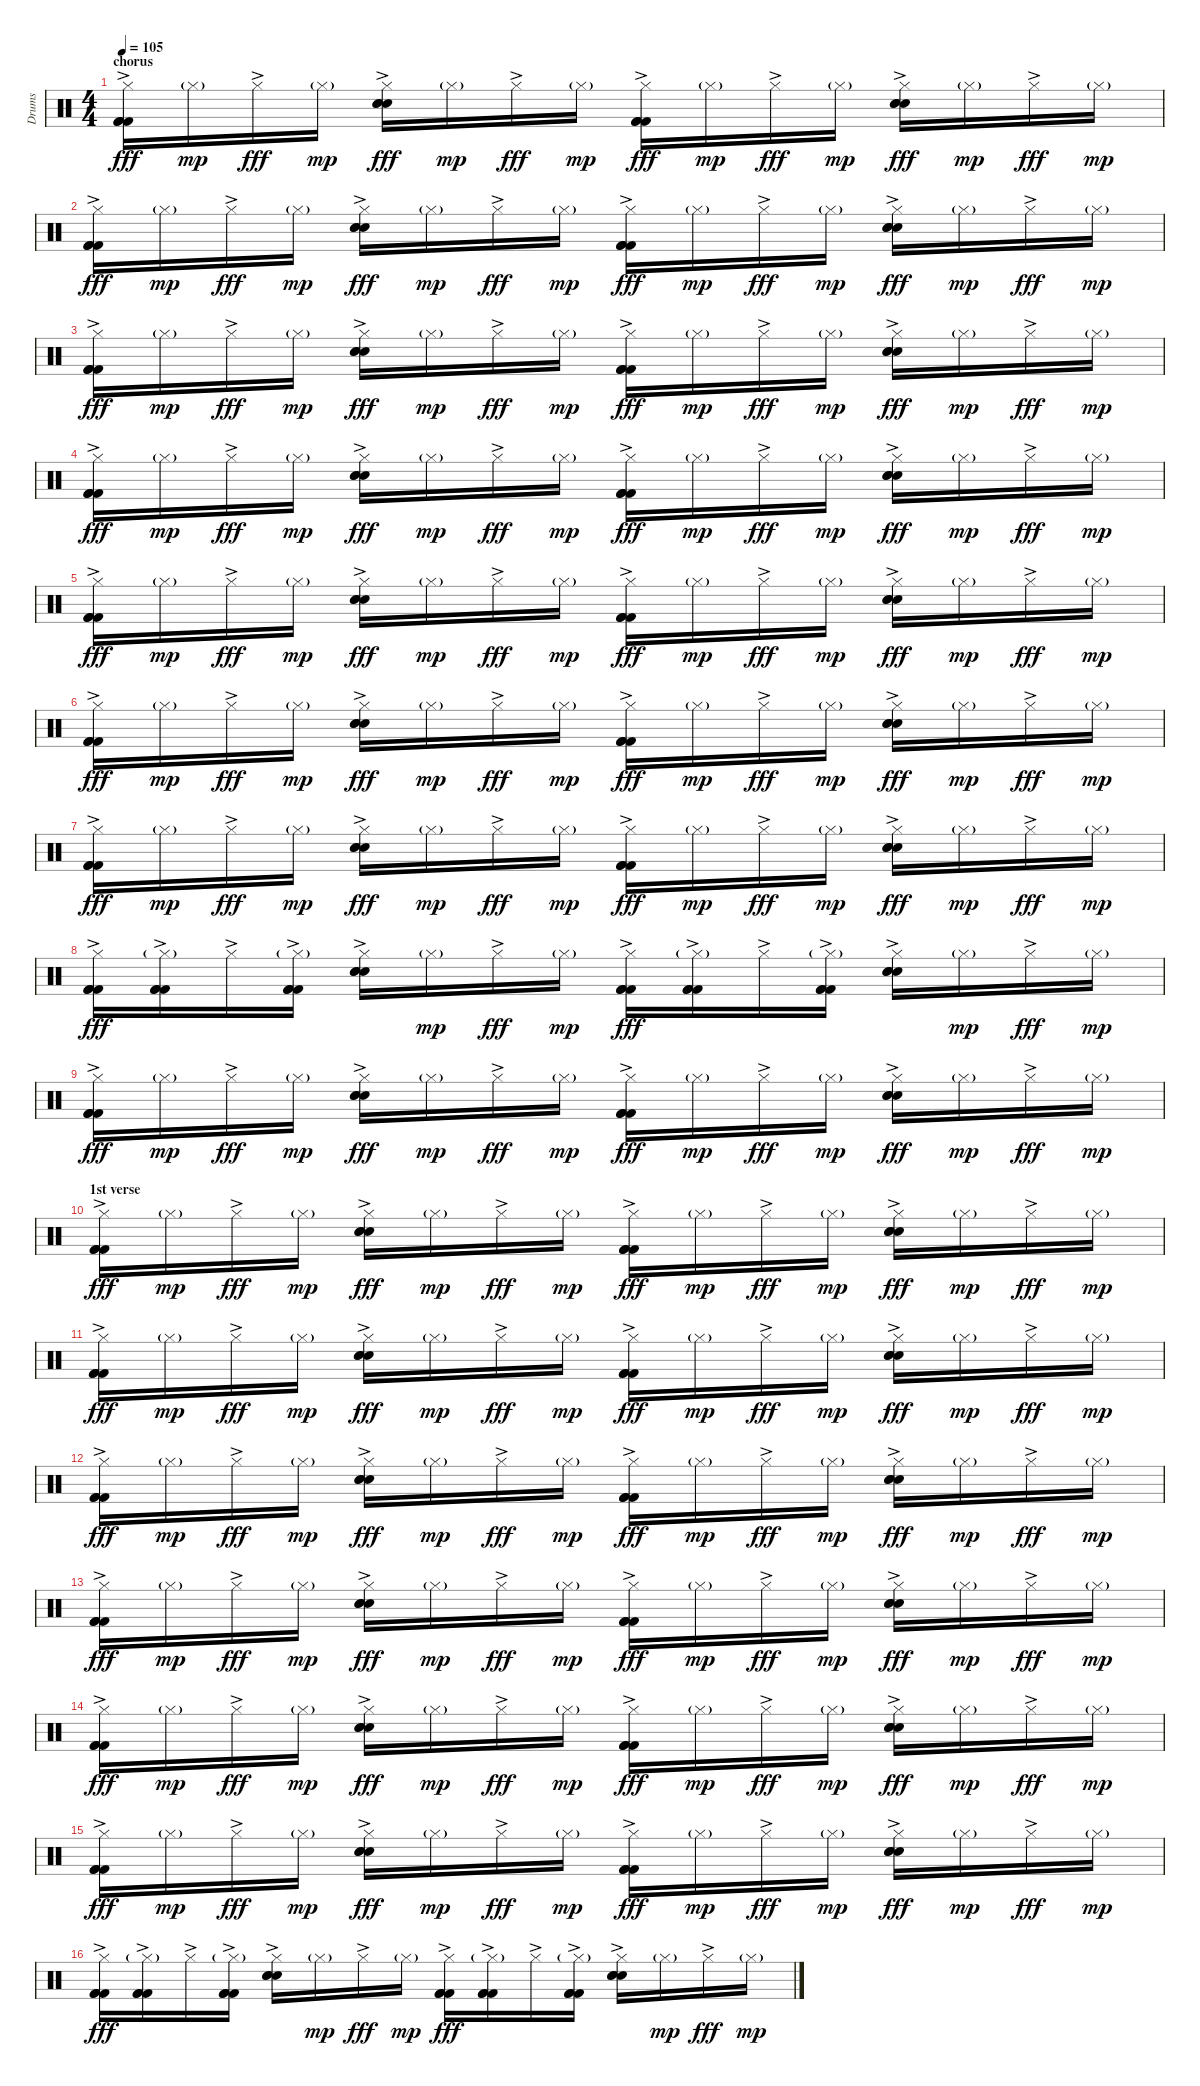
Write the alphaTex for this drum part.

\track ("Drums" "Drums") {instrument percussion}
\staff {score}
\articulation defaults
\ts (4 4)
\section ("" "chorus")
\tempo 105
\clef neutral
\ks c
("Hi-Hat (closed)"{ac} "Kick (hit) 2"{ac} "Kick (hit) 2"{ac} "Kick (hit) 2"{ac}).16{dy fff} "Hi-Hat (closed)"{g}.16{dy mp} "Hi-Hat (closed)"{ac}.16{dy fff} "Hi-Hat (closed)"{g}.16{dy mp} ("Hi-Hat (closed)"{ac} "Snare (hit) 2"{ac} "Snare (hit) 2"{ac} "Snare (hit) 2"{ac}).16{dy fff} "Hi-Hat (closed)"{g}.16{dy mp} "Hi-Hat (closed)"{ac}.16{dy fff} "Hi-Hat (closed)"{g}.16{dy mp} ("Hi-Hat (closed)"{ac} "Kick (hit) 2"{ac} "Kick (hit) 2"{ac} "Kick (hit) 2"{ac}).16{dy fff} "Hi-Hat (closed)"{g}.16{dy mp} "Hi-Hat (closed)"{ac}.16{dy fff} "Hi-Hat (closed)"{g}.16{dy mp} ("Hi-Hat (closed)"{ac} "Snare (hit) 2"{ac} "Snare (hit) 2"{ac} "Snare (hit) 2"{ac}).16{dy fff} "Hi-Hat (closed)"{g}.16{dy mp} "Hi-Hat (closed)"{ac}.16{dy fff} "Hi-Hat (closed)"{g}.16{dy mp} |
("Hi-Hat (closed)"{ac} "Kick (hit) 2"{ac} "Kick (hit) 2"{ac} "Kick (hit) 2"{ac}).16{dy fff} "Hi-Hat (closed)"{g}.16{dy mp} "Hi-Hat (closed)"{ac}.16{dy fff} "Hi-Hat (closed)"{g}.16{dy mp} ("Hi-Hat (closed)"{ac} "Snare (hit) 2"{ac} "Snare (hit) 2"{ac} "Snare (hit) 2"{ac}).16{dy fff} "Hi-Hat (closed)"{g}.16{dy mp} "Hi-Hat (closed)"{ac}.16{dy fff} "Hi-Hat (closed)"{g}.16{dy mp} ("Hi-Hat (closed)"{ac} "Kick (hit) 2"{ac} "Kick (hit) 2"{ac} "Kick (hit) 2"{ac}).16{dy fff} "Hi-Hat (closed)"{g}.16{dy mp} "Hi-Hat (closed)"{ac}.16{dy fff} "Hi-Hat (closed)"{g}.16{dy mp} ("Hi-Hat (closed)"{ac} "Snare (hit) 2"{ac} "Snare (hit) 2"{ac} "Snare (hit) 2"{ac}).16{dy fff} "Hi-Hat (closed)"{g}.16{dy mp} "Hi-Hat (closed)"{ac}.16{dy fff} "Hi-Hat (closed)"{g}.16{dy mp} |
("Hi-Hat (closed)"{ac} "Kick (hit) 2"{ac} "Kick (hit) 2"{ac} "Kick (hit) 2"{ac}).16{dy fff} "Hi-Hat (closed)"{g}.16{dy mp} "Hi-Hat (closed)"{ac}.16{dy fff} "Hi-Hat (closed)"{g}.16{dy mp} ("Hi-Hat (closed)"{ac} "Snare (hit) 2"{ac} "Snare (hit) 2"{ac} "Snare (hit) 2"{ac}).16{dy fff} "Hi-Hat (closed)"{g}.16{dy mp} "Hi-Hat (closed)"{ac}.16{dy fff} "Hi-Hat (closed)"{g}.16{dy mp} ("Hi-Hat (closed)"{ac} "Kick (hit) 2"{ac} "Kick (hit) 2"{ac} "Kick (hit) 2"{ac}).16{dy fff} "Hi-Hat (closed)"{g}.16{dy mp} "Hi-Hat (closed)"{ac}.16{dy fff} "Hi-Hat (closed)"{g}.16{dy mp} ("Hi-Hat (closed)"{ac} "Snare (hit) 2"{ac} "Snare (hit) 2"{ac} "Snare (hit) 2"{ac}).16{dy fff} "Hi-Hat (closed)"{g}.16{dy mp} "Hi-Hat (closed)"{ac}.16{dy fff} "Hi-Hat (closed)"{g}.16{dy mp} |
("Hi-Hat (closed)"{ac} "Kick (hit) 2"{ac} "Kick (hit) 2"{ac} "Kick (hit) 2"{ac}).16{dy fff} "Hi-Hat (closed)"{g}.16{dy mp} "Hi-Hat (closed)"{ac}.16{dy fff} "Hi-Hat (closed)"{g}.16{dy mp} ("Hi-Hat (closed)"{ac} "Snare (hit) 2"{ac} "Snare (hit) 2"{ac} "Snare (hit) 2"{ac}).16{dy fff} "Hi-Hat (closed)"{g}.16{dy mp} "Hi-Hat (closed)"{ac}.16{dy fff} "Hi-Hat (closed)"{g}.16{dy mp} ("Hi-Hat (closed)"{ac} "Kick (hit) 2"{ac} "Kick (hit) 2"{ac} "Kick (hit) 2"{ac}).16{dy fff} "Hi-Hat (closed)"{g}.16{dy mp} "Hi-Hat (closed)"{ac}.16{dy fff} "Hi-Hat (closed)"{g}.16{dy mp} ("Hi-Hat (closed)"{ac} "Snare (hit) 2"{ac} "Snare (hit) 2"{ac} "Snare (hit) 2"{ac}).16{dy fff} "Hi-Hat (closed)"{g}.16{dy mp} "Hi-Hat (closed)"{ac}.16{dy fff} "Hi-Hat (closed)"{g}.16{dy mp} |
("Hi-Hat (closed)"{ac} "Kick (hit) 2"{ac} "Kick (hit) 2"{ac} "Kick (hit) 2"{ac}).16{dy fff} "Hi-Hat (closed)"{g}.16{dy mp} "Hi-Hat (closed)"{ac}.16{dy fff} "Hi-Hat (closed)"{g}.16{dy mp} ("Hi-Hat (closed)"{ac} "Snare (hit) 2"{ac} "Snare (hit) 2"{ac} "Snare (hit) 2"{ac}).16{dy fff} "Hi-Hat (closed)"{g}.16{dy mp} "Hi-Hat (closed)"{ac}.16{dy fff} "Hi-Hat (closed)"{g}.16{dy mp} ("Hi-Hat (closed)"{ac} "Kick (hit) 2"{ac} "Kick (hit) 2"{ac} "Kick (hit) 2"{ac}).16{dy fff} "Hi-Hat (closed)"{g}.16{dy mp} "Hi-Hat (closed)"{ac}.16{dy fff} "Hi-Hat (closed)"{g}.16{dy mp} ("Hi-Hat (closed)"{ac} "Snare (hit) 2"{ac} "Snare (hit) 2"{ac} "Snare (hit) 2"{ac}).16{dy fff} "Hi-Hat (closed)"{g}.16{dy mp} "Hi-Hat (closed)"{ac}.16{dy fff} "Hi-Hat (closed)"{g}.16{dy mp} |
("Hi-Hat (closed)"{ac} "Kick (hit) 2"{ac} "Kick (hit) 2"{ac} "Kick (hit) 2"{ac}).16{dy fff} "Hi-Hat (closed)"{g}.16{dy mp} "Hi-Hat (closed)"{ac}.16{dy fff} "Hi-Hat (closed)"{g}.16{dy mp} ("Hi-Hat (closed)"{ac} "Snare (hit) 2"{ac} "Snare (hit) 2"{ac} "Snare (hit) 2"{ac}).16{dy fff} "Hi-Hat (closed)"{g}.16{dy mp} "Hi-Hat (closed)"{ac}.16{dy fff} "Hi-Hat (closed)"{g}.16{dy mp} ("Hi-Hat (closed)"{ac} "Kick (hit) 2"{ac} "Kick (hit) 2"{ac} "Kick (hit) 2"{ac}).16{dy fff} "Hi-Hat (closed)"{g}.16{dy mp} "Hi-Hat (closed)"{ac}.16{dy fff} "Hi-Hat (closed)"{g}.16{dy mp} ("Hi-Hat (closed)"{ac} "Snare (hit) 2"{ac} "Snare (hit) 2"{ac} "Snare (hit) 2"{ac}).16{dy fff} "Hi-Hat (closed)"{g}.16{dy mp} "Hi-Hat (closed)"{ac}.16{dy fff} "Hi-Hat (closed)"{g}.16{dy mp} |
("Hi-Hat (closed)"{ac} "Kick (hit) 2"{ac} "Kick (hit) 2"{ac} "Kick (hit) 2"{ac}).16{dy fff} "Hi-Hat (closed)"{g}.16{dy mp} "Hi-Hat (closed)"{ac}.16{dy fff} "Hi-Hat (closed)"{g}.16{dy mp} ("Hi-Hat (closed)"{ac} "Snare (hit) 2"{ac} "Snare (hit) 2"{ac} "Snare (hit) 2"{ac}).16{dy fff} "Hi-Hat (closed)"{g}.16{dy mp} "Hi-Hat (closed)"{ac}.16{dy fff} "Hi-Hat (closed)"{g}.16{dy mp} ("Hi-Hat (closed)"{ac} "Kick (hit) 2"{ac} "Kick (hit) 2"{ac} "Kick (hit) 2"{ac}).16{dy fff} "Hi-Hat (closed)"{g}.16{dy mp} "Hi-Hat (closed)"{ac}.16{dy fff} "Hi-Hat (closed)"{g}.16{dy mp} ("Hi-Hat (closed)"{ac} "Snare (hit) 2"{ac} "Snare (hit) 2"{ac} "Snare (hit) 2"{ac}).16{dy fff} "Hi-Hat (closed)"{g}.16{dy mp} "Hi-Hat (closed)"{ac}.16{dy fff} "Hi-Hat (closed)"{g}.16{dy mp} |
("Hi-Hat (closed)"{ac} "Kick (hit) 2"{ac} "Kick (hit) 2"{ac} "Kick (hit) 2"{ac}).16{dy fff} ("Hi-Hat (closed)"{g} "Kick (hit) 2"{ac} "Kick (hit) 2"{ac} "Kick (hit) 2"{ac}).16 "Hi-Hat (closed)"{ac}.16 ("Hi-Hat (closed)"{g} "Kick (hit) 2"{ac} "Kick (hit) 2"{ac} "Kick (hit) 2"{ac}).16 ("Hi-Hat (closed)"{ac} "Snare (hit) 2"{ac} "Snare (hit) 2"{ac} "Snare (hit) 2"{ac}).16 "Hi-Hat (closed)"{g}.16{dy mp} "Hi-Hat (closed)"{ac}.16{dy fff} "Hi-Hat (closed)"{g}.16{dy mp} ("Hi-Hat (closed)"{ac} "Kick (hit) 2"{ac} "Kick (hit) 2"{ac} "Kick (hit) 2"{ac}).16{dy fff} ("Hi-Hat (closed)"{g} "Kick (hit) 2"{ac} "Kick (hit) 2"{ac} "Kick (hit) 2"{ac}).16 "Hi-Hat (closed)"{ac}.16 ("Hi-Hat (closed)"{g} "Kick (hit) 2"{ac} "Kick (hit) 2"{ac} "Kick (hit) 2"{ac}).16 ("Hi-Hat (closed)"{ac} "Snare (hit) 2"{ac} "Snare (hit) 2"{ac} "Snare (hit) 2"{ac}).16 "Hi-Hat (closed)"{g}.16{dy mp} "Hi-Hat (closed)"{ac}.16{dy fff} "Hi-Hat (closed)"{g}.16{dy mp} |
("Hi-Hat (closed)"{ac} "Kick (hit) 2"{ac} "Kick (hit) 2"{ac} "Kick (hit) 2"{ac}).16{dy fff} "Hi-Hat (closed)"{g}.16{dy mp} "Hi-Hat (closed)"{ac}.16{dy fff} "Hi-Hat (closed)"{g}.16{dy mp} ("Hi-Hat (closed)"{ac} "Snare (hit) 2"{ac} "Snare (hit) 2"{ac} "Snare (hit) 2"{ac}).16{dy fff} "Hi-Hat (closed)"{g}.16{dy mp} "Hi-Hat (closed)"{ac}.16{dy fff} "Hi-Hat (closed)"{g}.16{dy mp} ("Hi-Hat (closed)"{ac} "Kick (hit) 2"{ac} "Kick (hit) 2"{ac} "Kick (hit) 2"{ac}).16{dy fff} "Hi-Hat (closed)"{g}.16{dy mp} "Hi-Hat (closed)"{ac}.16{dy fff} "Hi-Hat (closed)"{g}.16{dy mp} ("Hi-Hat (closed)"{ac} "Snare (hit) 2"{ac} "Snare (hit) 2"{ac} "Snare (hit) 2"{ac}).16{dy fff} "Hi-Hat (closed)"{g}.16{dy mp} "Hi-Hat (closed)"{ac}.16{dy fff} "Hi-Hat (closed)"{g}.16{dy mp} |
\section ("" "1st verse")
("Hi-Hat (closed)"{ac} "Kick (hit) 2"{ac} "Kick (hit) 2"{ac} "Kick (hit) 2"{ac}).16{dy fff} "Hi-Hat (closed)"{g}.16{dy mp} "Hi-Hat (closed)"{ac}.16{dy fff} "Hi-Hat (closed)"{g}.16{dy mp} ("Hi-Hat (closed)"{ac} "Snare (hit) 2"{ac} "Snare (hit) 2"{ac} "Snare (hit) 2"{ac}).16{dy fff} "Hi-Hat (closed)"{g}.16{dy mp} "Hi-Hat (closed)"{ac}.16{dy fff} "Hi-Hat (closed)"{g}.16{dy mp} ("Hi-Hat (closed)"{ac} "Kick (hit) 2"{ac} "Kick (hit) 2"{ac} "Kick (hit) 2"{ac}).16{dy fff} "Hi-Hat (closed)"{g}.16{dy mp} "Hi-Hat (closed)"{ac}.16{dy fff} "Hi-Hat (closed)"{g}.16{dy mp} ("Hi-Hat (closed)"{ac} "Snare (hit) 2"{ac} "Snare (hit) 2"{ac} "Snare (hit) 2"{ac}).16{dy fff} "Hi-Hat (closed)"{g}.16{dy mp} "Hi-Hat (closed)"{ac}.16{dy fff} "Hi-Hat (closed)"{g}.16{dy mp} |
("Hi-Hat (closed)"{ac} "Kick (hit) 2"{ac} "Kick (hit) 2"{ac} "Kick (hit) 2"{ac}).16{dy fff} "Hi-Hat (closed)"{g}.16{dy mp} "Hi-Hat (closed)"{ac}.16{dy fff} "Hi-Hat (closed)"{g}.16{dy mp} ("Hi-Hat (closed)"{ac} "Snare (hit) 2"{ac} "Snare (hit) 2"{ac} "Snare (hit) 2"{ac}).16{dy fff} "Hi-Hat (closed)"{g}.16{dy mp} "Hi-Hat (closed)"{ac}.16{dy fff} "Hi-Hat (closed)"{g}.16{dy mp} ("Hi-Hat (closed)"{ac} "Kick (hit) 2"{ac} "Kick (hit) 2"{ac} "Kick (hit) 2"{ac}).16{dy fff} "Hi-Hat (closed)"{g}.16{dy mp} "Hi-Hat (closed)"{ac}.16{dy fff} "Hi-Hat (closed)"{g}.16{dy mp} ("Hi-Hat (closed)"{ac} "Snare (hit) 2"{ac} "Snare (hit) 2"{ac} "Snare (hit) 2"{ac}).16{dy fff} "Hi-Hat (closed)"{g}.16{dy mp} "Hi-Hat (closed)"{ac}.16{dy fff} "Hi-Hat (closed)"{g}.16{dy mp} |
("Hi-Hat (closed)"{ac} "Kick (hit) 2"{ac} "Kick (hit) 2"{ac} "Kick (hit) 2"{ac}).16{dy fff} "Hi-Hat (closed)"{g}.16{dy mp} "Hi-Hat (closed)"{ac}.16{dy fff} "Hi-Hat (closed)"{g}.16{dy mp} ("Hi-Hat (closed)"{ac} "Snare (hit) 2"{ac} "Snare (hit) 2"{ac} "Snare (hit) 2"{ac}).16{dy fff} "Hi-Hat (closed)"{g}.16{dy mp} "Hi-Hat (closed)"{ac}.16{dy fff} "Hi-Hat (closed)"{g}.16{dy mp} ("Hi-Hat (closed)"{ac} "Kick (hit) 2"{ac} "Kick (hit) 2"{ac} "Kick (hit) 2"{ac}).16{dy fff} "Hi-Hat (closed)"{g}.16{dy mp} "Hi-Hat (closed)"{ac}.16{dy fff} "Hi-Hat (closed)"{g}.16{dy mp} ("Hi-Hat (closed)"{ac} "Snare (hit) 2"{ac} "Snare (hit) 2"{ac} "Snare (hit) 2"{ac}).16{dy fff} "Hi-Hat (closed)"{g}.16{dy mp} "Hi-Hat (closed)"{ac}.16{dy fff} "Hi-Hat (closed)"{g}.16{dy mp} |
("Hi-Hat (closed)"{ac} "Kick (hit) 2"{ac} "Kick (hit) 2"{ac} "Kick (hit) 2"{ac}).16{dy fff} "Hi-Hat (closed)"{g}.16{dy mp} "Hi-Hat (closed)"{ac}.16{dy fff} "Hi-Hat (closed)"{g}.16{dy mp} ("Hi-Hat (closed)"{ac} "Snare (hit) 2"{ac} "Snare (hit) 2"{ac} "Snare (hit) 2"{ac}).16{dy fff} "Hi-Hat (closed)"{g}.16{dy mp} "Hi-Hat (closed)"{ac}.16{dy fff} "Hi-Hat (closed)"{g}.16{dy mp} ("Hi-Hat (closed)"{ac} "Kick (hit) 2"{ac} "Kick (hit) 2"{ac} "Kick (hit) 2"{ac}).16{dy fff} "Hi-Hat (closed)"{g}.16{dy mp} "Hi-Hat (closed)"{ac}.16{dy fff} "Hi-Hat (closed)"{g}.16{dy mp} ("Hi-Hat (closed)"{ac} "Snare (hit) 2"{ac} "Snare (hit) 2"{ac} "Snare (hit) 2"{ac}).16{dy fff} "Hi-Hat (closed)"{g}.16{dy mp} "Hi-Hat (closed)"{ac}.16{dy fff} "Hi-Hat (closed)"{g}.16{dy mp} |
("Hi-Hat (closed)"{ac} "Kick (hit) 2"{ac} "Kick (hit) 2"{ac} "Kick (hit) 2"{ac}).16{dy fff} "Hi-Hat (closed)"{g}.16{dy mp} "Hi-Hat (closed)"{ac}.16{dy fff} "Hi-Hat (closed)"{g}.16{dy mp} ("Hi-Hat (closed)"{ac} "Snare (hit) 2"{ac} "Snare (hit) 2"{ac} "Snare (hit) 2"{ac}).16{dy fff} "Hi-Hat (closed)"{g}.16{dy mp} "Hi-Hat (closed)"{ac}.16{dy fff} "Hi-Hat (closed)"{g}.16{dy mp} ("Hi-Hat (closed)"{ac} "Kick (hit) 2"{ac} "Kick (hit) 2"{ac} "Kick (hit) 2"{ac}).16{dy fff} "Hi-Hat (closed)"{g}.16{dy mp} "Hi-Hat (closed)"{ac}.16{dy fff} "Hi-Hat (closed)"{g}.16{dy mp} ("Hi-Hat (closed)"{ac} "Snare (hit) 2"{ac} "Snare (hit) 2"{ac} "Snare (hit) 2"{ac}).16{dy fff} "Hi-Hat (closed)"{g}.16{dy mp} "Hi-Hat (closed)"{ac}.16{dy fff} "Hi-Hat (closed)"{g}.16{dy mp} |
("Hi-Hat (closed)"{ac} "Kick (hit) 2"{ac} "Kick (hit) 2"{ac} "Kick (hit) 2"{ac}).16{dy fff} "Hi-Hat (closed)"{g}.16{dy mp} "Hi-Hat (closed)"{ac}.16{dy fff} "Hi-Hat (closed)"{g}.16{dy mp} ("Hi-Hat (closed)"{ac} "Snare (hit) 2"{ac} "Snare (hit) 2"{ac} "Snare (hit) 2"{ac}).16{dy fff} "Hi-Hat (closed)"{g}.16{dy mp} "Hi-Hat (closed)"{ac}.16{dy fff} "Hi-Hat (closed)"{g}.16{dy mp} ("Hi-Hat (closed)"{ac} "Kick (hit) 2"{ac} "Kick (hit) 2"{ac} "Kick (hit) 2"{ac}).16{dy fff} "Hi-Hat (closed)"{g}.16{dy mp} "Hi-Hat (closed)"{ac}.16{dy fff} "Hi-Hat (closed)"{g}.16{dy mp} ("Hi-Hat (closed)"{ac} "Snare (hit) 2"{ac} "Snare (hit) 2"{ac} "Snare (hit) 2"{ac}).16{dy fff} "Hi-Hat (closed)"{g}.16{dy mp} "Hi-Hat (closed)"{ac}.16{dy fff} "Hi-Hat (closed)"{g}.16{dy mp} |
("Hi-Hat (closed)"{ac} "Kick (hit) 2"{ac} "Kick (hit) 2"{ac} "Kick (hit) 2"{ac}).16{dy fff} ("Hi-Hat (closed)"{g} "Kick (hit) 2"{ac} "Kick (hit) 2"{ac} "Kick (hit) 2"{ac}).16 "Hi-Hat (closed)"{ac}.16 ("Hi-Hat (closed)"{g} "Kick (hit) 2"{ac} "Kick (hit) 2"{ac} "Kick (hit) 2"{ac}).16 ("Hi-Hat (closed)"{ac} "Snare (hit) 2"{ac} "Snare (hit) 2"{ac} "Snare (hit) 2"{ac}).16 "Hi-Hat (closed)"{g}.16{dy mp} "Hi-Hat (closed)"{ac}.16{dy fff} "Hi-Hat (closed)"{g}.16{dy mp} ("Hi-Hat (closed)"{ac} "Kick (hit) 2"{ac} "Kick (hit) 2"{ac} "Kick (hit) 2"{ac}).16{dy fff} ("Hi-Hat (closed)"{g} "Kick (hit) 2"{ac} "Kick (hit) 2"{ac} "Kick (hit) 2"{ac}).16 "Hi-Hat (closed)"{ac}.16 ("Hi-Hat (closed)"{g} "Kick (hit) 2"{ac} "Kick (hit) 2"{ac} "Kick (hit) 2"{ac}).16 ("Hi-Hat (closed)"{ac} "Snare (hit) 2"{ac} "Snare (hit) 2"{ac} "Snare (hit) 2"{ac}).16 "Hi-Hat (closed)"{g}.16{dy mp} "Hi-Hat (closed)"{ac}.16{dy fff} "Hi-Hat (closed)"{g}.16{dy mp}
